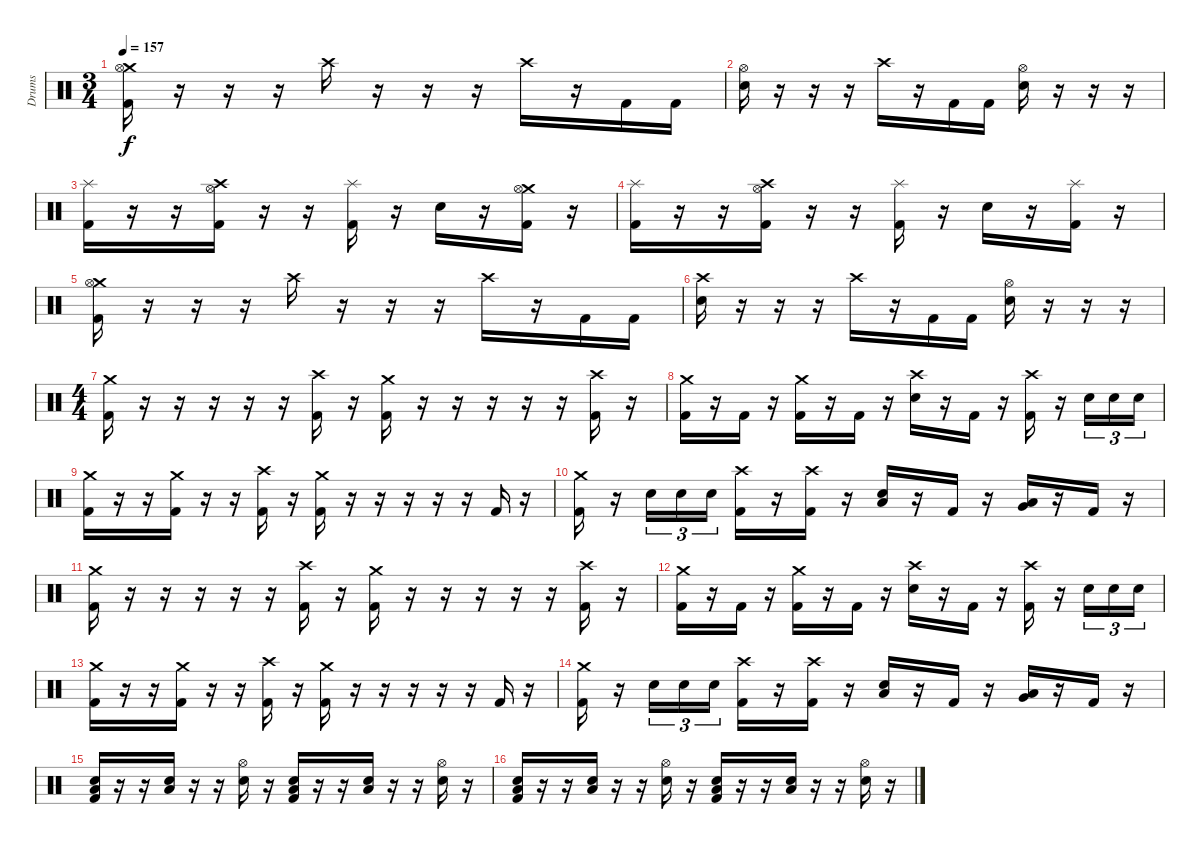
\track ("Drums" "Drums") {instrument percussion}
\staff {score}
\articulation defaults
\ts (3 4)
\tempo 157
\clef neutral
\ks c
("Crash medium (hit)" "Hi-Hat (open)" "Kick (hit) 2").16{dy f} r.16 r.16 r.16 "Crash high (hit)".16 r.16 r.16 r.16 "Crash high (hit)".16 r.16 "Kick (hit) 2".16 "Kick (hit) 2".16 |
("Hi-Hat (open)" "Snare (hit) 2").16 r.16 r.16 r.16 "Crash high (hit)".16 r.16 "Kick (hit) 2".16 "Kick (hit) 2".16 ("Hi-Hat (open)" "Snare (hit) 2").16 r.16 r.16 r.16 |
("Splash (hit)" "Kick (hit) 2").16 r.16 r.16 ("Crash high (hit)" "Hi-Hat (open)" "Kick (hit) 2").16 r.16 r.16 ("Splash (hit)" "Kick (hit) 2").16 r.16 "Snare (hit) 2".16 r.16 ("Crash medium (hit)" "Hi-Hat (open)" "Kick (hit) 2").16 r.16 |
("Splash (hit)" "Kick (hit) 2").16 r.16 r.16 ("Crash high (hit)" "Hi-Hat (open)" "Kick (hit) 2").16 r.16 r.16 ("Splash (hit)" "Kick (hit) 2").16 r.16 "Snare (hit) 2".16 r.16 ("Splash (hit)" "Kick (hit) 2").16 r.16 |
("Crash medium (hit)" "Hi-Hat (open)" "Kick (hit) 2").16 r.16 r.16 r.16 "Crash high (hit)".16 r.16 r.16 r.16 "Crash high (hit)".16 r.16 "Kick (hit) 2".16 "Kick (hit) 2".16 |
("Crash high (hit)" "Snare (hit) 2").16 r.16 r.16 r.16 "Crash high (hit)".16 r.16 "Kick (hit) 2".16 "Kick (hit) 2".16 ("Hi-Hat (open)" "Snare (hit) 2").16 r.16 r.16 r.16 |
\ts (4 4)
("Crash medium (hit)" "Kick (hit) 2").16 r.16 r.16 r.16 r.16 r.16 ("Crash high (hit)" "Kick (hit) 2").16 r.16 ("Crash medium (hit)" "Kick (hit) 2").16 r.16 r.16 r.16 r.16 r.16 ("Crash high (hit)" "Kick (hit) 2").16 r.16 |
("Crash medium (hit)" "Kick (hit) 2").16 r.16 "Kick (hit) 2".16 r.16 ("Crash medium (hit)" "Kick (hit) 2").16 r.16 "Kick (hit) 2".16 r.16 ("Crash high (hit)" "Snare (hit) 2").16 r.16 "Kick (hit) 2".16 r.16 ("Crash high (hit)" "Kick (hit) 2").16 r.16 "Snare (hit) 2".16{tu (3 2)} "Snare (hit) 2".16{tu (3 2)} "Snare (hit) 2".16{tu (3 2)} |
("Crash medium (hit)" "Kick (hit) 2").16 r.16 r.16 ("Crash medium (hit)" "Kick (hit) 2").16 r.16 r.16 ("Crash high (hit)" "Kick (hit) 2").16 r.16 ("Crash medium (hit)" "Kick (hit) 2").16 r.16 r.16 r.16 r.16 r.16 "Kick (hit) 2".16 r.16 |
("Crash medium (hit)" "Kick (hit) 2").16 r.16 "Snare (hit) 2".16{tu (3 2)} "Snare (hit) 2".16{tu (3 2)} "Snare (hit) 2".16{tu (3 2)} ("Crash high (hit)" "Kick (hit) 2").16 r.16 ("Crash high (hit)" "Kick (hit) 2").16 r.16 ("Low Tom (hit)" "Snare (hit) 2").16 r.16 "Kick (hit) 2".16 r.16 ("Very Low Tom (hit)" "Low Tom (hit)").16 r.16 "Kick (hit) 2".16 r.16 |
("Crash medium (hit)" "Kick (hit) 2").16 r.16 r.16 r.16 r.16 r.16 ("Crash high (hit)" "Kick (hit) 2").16 r.16 ("Crash medium (hit)" "Kick (hit) 2").16 r.16 r.16 r.16 r.16 r.16 ("Crash high (hit)" "Kick (hit) 2").16 r.16 |
("Crash medium (hit)" "Kick (hit) 2").16 r.16 "Kick (hit) 2".16 r.16 ("Crash medium (hit)" "Kick (hit) 2").16 r.16 "Kick (hit) 2".16 r.16 ("Crash high (hit)" "Snare (hit) 2").16 r.16 "Kick (hit) 2".16 r.16 ("Crash high (hit)" "Kick (hit) 2").16 r.16 "Snare (hit) 2".16{tu (3 2)} "Snare (hit) 2".16{tu (3 2)} "Snare (hit) 2".16{tu (3 2)} |
("Crash medium (hit)" "Kick (hit) 2").16 r.16 r.16 ("Crash medium (hit)" "Kick (hit) 2").16 r.16 r.16 ("Crash high (hit)" "Kick (hit) 2").16 r.16 ("Crash medium (hit)" "Kick (hit) 2").16 r.16 r.16 r.16 r.16 r.16 "Kick (hit) 2".16 r.16 |
("Crash medium (hit)" "Kick (hit) 2").16 r.16 "Snare (hit) 2".16{tu (3 2)} "Snare (hit) 2".16{tu (3 2)} "Snare (hit) 2".16{tu (3 2)} ("Crash high (hit)" "Kick (hit) 2").16 r.16 ("Crash high (hit)" "Kick (hit) 2").16 r.16 ("Low Tom (hit)" "Snare (hit) 2").16 r.16 "Kick (hit) 2".16 r.16 ("Very Low Tom (hit)" "Low Tom (hit)").16 r.16 "Kick (hit) 2".16 r.16 |
("Low Tom (hit)" "Snare (hit) 2" "Kick (hit) 2").16 r.16 r.16 ("Low Tom (hit)" "Snare (hit) 2").16 r.16 r.16 ("Hi-Hat (open)" "Snare (hit) 2").16 r.16 ("Low Tom (hit)" "Snare (hit) 2" "Kick (hit) 2").16 r.16 r.16 ("Low Tom (hit)" "Snare (hit) 2").16 r.16 r.16 ("Hi-Hat (open)" "Snare (hit) 2").16 r.16 |
("Low Tom (hit)" "Snare (hit) 2" "Kick (hit) 2").16 r.16 r.16 ("Low Tom (hit)" "Snare (hit) 2").16 r.16 r.16 ("Hi-Hat (open)" "Snare (hit) 2").16 r.16 ("Low Tom (hit)" "Snare (hit) 2" "Kick (hit) 2").16 r.16 r.16 ("Low Tom (hit)" "Snare (hit) 2").16 r.16 r.16 ("Hi-Hat (open)" "Snare (hit) 2").16 r.16
